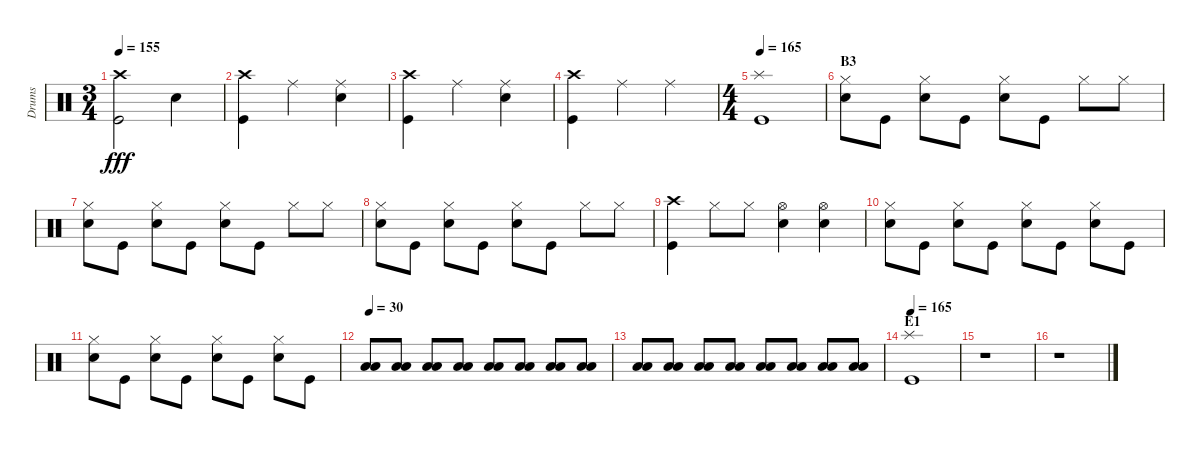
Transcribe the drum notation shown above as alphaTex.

\track ("Drums" "Drums") {instrument percussion}
\staff {score}
\articulation defaults
\ts (3 4)
\tempo 155
\clef neutral
\ks c
("Crash high (hit)" "Kick (hit)").2{dy fff} "Snare (hit) 2".4 |
("Crash high (hit)" "Kick (hit)").4 "Ride (middle)".4 ("Ride (middle)" "Snare (hit) 2").4 |
("Crash high (hit)" "Kick (hit)").4 "Ride (middle)".4 ("Ride (middle)" "Snare (hit) 2").4 |
("Crash high (hit)" "Kick (hit)").4 "Ride (middle)".4 "Ride (middle)".4 |
\ts (4 4)
\tempo 165
("Splash (hit)" "Kick (hit)").1 |
\section ("" "B3")
("Hi-Hat (closed)" "Snare (hit) 2").8 "Kick (hit)".8 ("Hi-Hat (closed)" "Snare (hit) 2").8 "Kick (hit)".8 ("Hi-Hat (closed)" "Snare (hit) 2").8 "Kick (hit)".8 "Hi-Hat (closed)".8 "Hi-Hat (closed)".8 |
("Hi-Hat (closed)" "Snare (hit) 2").8 "Kick (hit)".8 ("Hi-Hat (closed)" "Snare (hit) 2").8 "Kick (hit)".8 ("Hi-Hat (closed)" "Snare (hit) 2").8 "Kick (hit)".8 "Hi-Hat (closed)".8 "Hi-Hat (closed)".8 |
("Hi-Hat (closed)" "Snare (hit) 2").8 "Kick (hit)".8 ("Hi-Hat (closed)" "Snare (hit) 2").8 "Kick (hit)".8 ("Hi-Hat (closed)" "Snare (hit) 2").8 "Kick (hit)".8 "Hi-Hat (closed)".8 "Hi-Hat (closed)".8 |
("Crash high (hit)" "Kick (hit)").4 "Hi-Hat (closed)".8 "Hi-Hat (closed)".8 ("Hi-Hat (open)" "Snare (hit) 2").4 ("Hi-Hat (open)" "Snare (hit) 2").4 |
("Hi-Hat (closed)" "Snare (hit) 2").8 "Kick (hit)".8 ("Hi-Hat (closed)" "Snare (hit) 2").8 "Kick (hit)".8 ("Hi-Hat (closed)" "Snare (hit) 2").8 "Kick (hit)".8 ("Hi-Hat (closed)" "Snare (hit) 2").8 "Kick (hit)".8 |
("Hi-Hat (closed)" "Snare (hit) 2").8 "Kick (hit)".8 ("Hi-Hat (closed)" "Snare (hit) 2").8 "Kick (hit)".8 ("Hi-Hat (closed)" "Snare (hit) 2").8 "Kick (hit)".8 ("Hi-Hat (closed)" "Snare (hit) 2").8 "Kick (hit)".8 |
\tempo 30
("Low Tom (hit)" "Low Floor Tom (hit)").8 ("Low Tom (hit)" "Low Floor Tom (hit)").8 ("Low Tom (hit)" "Low Floor Tom (hit)").8 ("Low Tom (hit)" "Low Floor Tom (hit)").8 ("Low Tom (hit)" "Low Floor Tom (hit)").8 ("Low Tom (hit)" "Low Floor Tom (hit)").8 ("Low Tom (hit)" "Low Floor Tom (hit)").8 ("Low Tom (hit)" "Low Floor Tom (hit)").8 |
("Low Tom (hit)" "Low Floor Tom (hit)").8 ("Low Tom (hit)" "Low Floor Tom (hit)").8 ("Low Tom (hit)" "Low Floor Tom (hit)").8 ("Low Tom (hit)" "Low Floor Tom (hit)").8 ("Low Tom (hit)" "Low Floor Tom (hit)").8 ("Low Tom (hit)" "Low Floor Tom (hit)").8 ("Low Tom (hit)" "Low Floor Tom (hit)").8 ("Low Tom (hit)" "Low Floor Tom (hit)").8 |
\section ("" "E1")
\tempo 165
("Splash (hit)" "Kick (hit)").1 |
r.1 |
r.1
